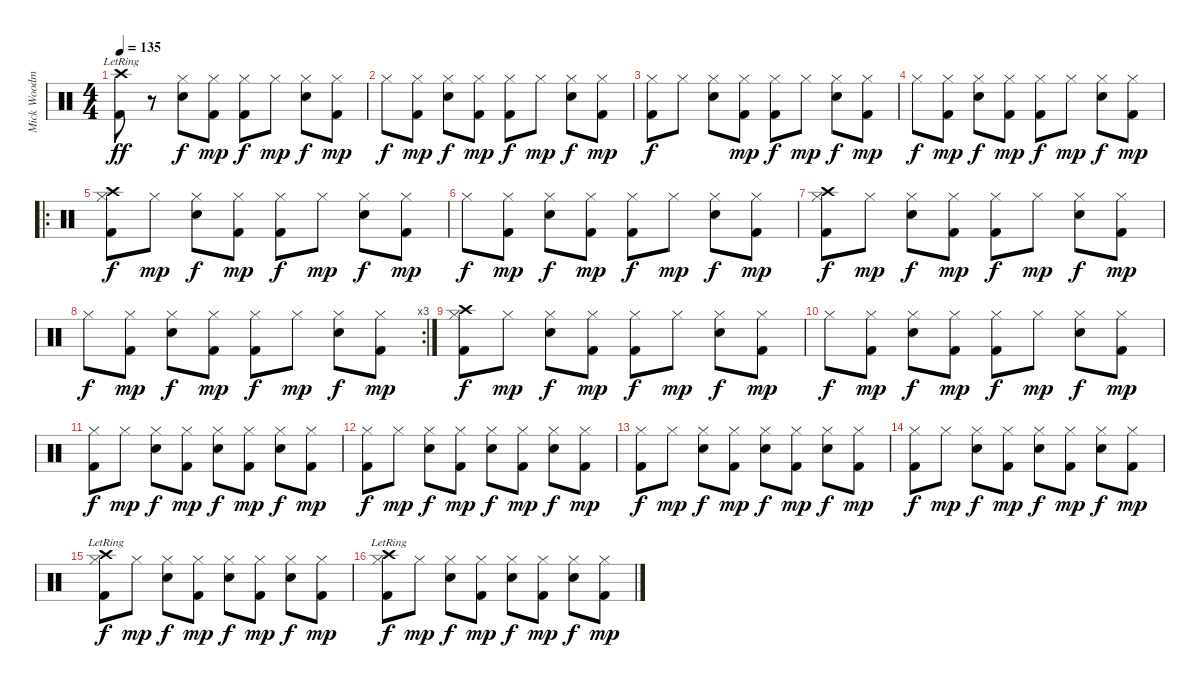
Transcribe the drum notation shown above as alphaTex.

\track ("Mick Woodmansey - Drums" "Mick Woodm") {instrument percussion}
\staff {score}
\articulation defaults
\ts (4 4)
\tempo 135
\clef neutral
\ks c
("Crash high (hit)"{lr} "Kick (hit) 2").8{dy ff} r.8 ("Hi-Hat (closed)" "Electric Snare (hit)").8{dy f} ("Hi-Hat (closed)" "Kick (hit) 2").8{dy mp} ("Hi-Hat (closed)" "Kick (hit) 2").8{dy f} "Hi-Hat (closed)".8{dy mp} ("Hi-Hat (closed)" "Electric Snare (hit)").8{dy f} ("Hi-Hat (closed)" "Kick (hit) 2").8{dy mp} |
"Hi-Hat (closed)".8{dy f} ("Hi-Hat (closed)" "Kick (hit) 2").8{dy mp} ("Hi-Hat (closed)" "Electric Snare (hit)").8{dy f} ("Hi-Hat (closed)" "Kick (hit) 2").8{dy mp} ("Hi-Hat (closed)" "Kick (hit) 2").8{dy f} "Hi-Hat (closed)".8{dy mp} ("Hi-Hat (closed)" "Electric Snare (hit)").8{dy f} ("Hi-Hat (closed)" "Kick (hit) 2").8{dy mp} |
("Hi-Hat (closed)" "Kick (hit) 2").8{dy f} "Hi-Hat (closed)".8 ("Hi-Hat (closed)" "Electric Snare (hit)").8 ("Hi-Hat (closed)" "Kick (hit) 2").8{dy mp} ("Hi-Hat (closed)" "Kick (hit) 2").8{dy f} "Hi-Hat (closed)".8{dy mp} ("Hi-Hat (closed)" "Electric Snare (hit)").8{dy f} ("Hi-Hat (closed)" "Kick (hit) 2").8{dy mp} |
"Hi-Hat (closed)".8{dy f} ("Hi-Hat (closed)" "Kick (hit) 2").8{dy mp} ("Hi-Hat (closed)" "Electric Snare (hit)").8{dy f} ("Hi-Hat (closed)" "Kick (hit) 2").8{dy mp} ("Hi-Hat (closed)" "Kick (hit) 2").8{dy f} "Hi-Hat (closed)".8{dy mp} ("Hi-Hat (closed)" "Electric Snare (hit)").8{dy f} ("Hi-Hat (closed)" "Kick (hit) 2").8{dy mp} |
\ro
("Crash high (hit)" "Hi-Hat (closed)" "Kick (hit) 2").8{dy f} "Hi-Hat (closed)".8{dy mp} ("Hi-Hat (closed)" "Electric Snare (hit)").8{dy f} ("Hi-Hat (closed)" "Kick (hit) 2").8{dy mp} ("Hi-Hat (closed)" "Kick (hit) 2").8{dy f} "Hi-Hat (closed)".8{dy mp} ("Hi-Hat (closed)" "Electric Snare (hit)").8{dy f} ("Hi-Hat (closed)" "Kick (hit) 2").8{dy mp} |
"Hi-Hat (closed)".8{dy f} ("Hi-Hat (closed)" "Kick (hit) 2").8{dy mp} ("Hi-Hat (closed)" "Electric Snare (hit)").8{dy f} ("Hi-Hat (closed)" "Kick (hit) 2").8{dy mp} ("Hi-Hat (closed)" "Kick (hit) 2").8{dy f} "Hi-Hat (closed)".8{dy mp} ("Hi-Hat (closed)" "Electric Snare (hit)").8{dy f} ("Hi-Hat (closed)" "Kick (hit) 2").8{dy mp} |
("Crash high (hit)" "Hi-Hat (closed)" "Kick (hit) 2").8{dy f} "Hi-Hat (closed)".8{dy mp} ("Hi-Hat (closed)" "Electric Snare (hit)").8{dy f} ("Hi-Hat (closed)" "Kick (hit) 2").8{dy mp} ("Hi-Hat (closed)" "Kick (hit) 2").8{dy f} "Hi-Hat (closed)".8{dy mp} ("Hi-Hat (closed)" "Electric Snare (hit)").8{dy f} ("Hi-Hat (closed)" "Kick (hit) 2").8{dy mp} |
\rc 3 "Hi-Hat (closed)".8{dy f}
("Hi-Hat (closed)" "Kick (hit) 2").8{dy mp} ("Hi-Hat (closed)" "Electric Snare (hit)").8{dy f} ("Hi-Hat (closed)" "Kick (hit) 2").8{dy mp} ("Hi-Hat (closed)" "Kick (hit) 2").8{dy f} "Hi-Hat (closed)".8{dy mp} ("Hi-Hat (closed)" "Electric Snare (hit)").8{dy f} ("Hi-Hat (closed)" "Kick (hit) 2").8{dy mp} |
("Crash high (hit)" "Hi-Hat (closed)" "Kick (hit) 2").8{dy f} "Hi-Hat (closed)".8{dy mp} ("Hi-Hat (closed)" "Electric Snare (hit)").8{dy f} ("Hi-Hat (closed)" "Kick (hit) 2").8{dy mp} ("Hi-Hat (closed)" "Kick (hit) 2").8{dy f} "Hi-Hat (closed)".8{dy mp} ("Hi-Hat (closed)" "Electric Snare (hit)").8{dy f} ("Hi-Hat (closed)" "Kick (hit) 2").8{dy mp} |
"Hi-Hat (closed)".8{dy f} ("Hi-Hat (closed)" "Kick (hit) 2").8{dy mp} ("Hi-Hat (closed)" "Electric Snare (hit)").8{dy f} ("Hi-Hat (closed)" "Kick (hit) 2").8{dy mp} ("Hi-Hat (closed)" "Kick (hit) 2").8{dy f} "Hi-Hat (closed)".8{dy mp} ("Hi-Hat (closed)" "Electric Snare (hit)").8{dy f} ("Hi-Hat (closed)" "Kick (hit) 2").8{dy mp} |
("Hi-Hat (closed)" "Kick (hit) 2").8{dy f} "Hi-Hat (closed)".8{dy mp} ("Hi-Hat (closed)" "Electric Snare (hit)").8{dy f} ("Hi-Hat (closed)" "Kick (hit) 2").8{dy mp} ("Hi-Hat (closed)" "Electric Snare (hit)").8{dy f} ("Hi-Hat (closed)" "Kick (hit) 2").8{dy mp} ("Hi-Hat (closed)" "Electric Snare (hit)").8{dy f} ("Hi-Hat (closed)" "Kick (hit) 2").8{dy mp} |
("Hi-Hat (closed)" "Kick (hit) 2").8{dy f} "Hi-Hat (closed)".8{dy mp} ("Hi-Hat (closed)" "Electric Snare (hit)").8{dy f} ("Hi-Hat (closed)" "Kick (hit) 2").8{dy mp} ("Hi-Hat (closed)" "Electric Snare (hit)").8{dy f} ("Hi-Hat (closed)" "Kick (hit) 2").8{dy mp} ("Hi-Hat (closed)" "Electric Snare (hit)").8{dy f} ("Hi-Hat (closed)" "Kick (hit) 2").8{dy mp} |
("Hi-Hat (closed)" "Kick (hit) 2").8{dy f} "Hi-Hat (closed)".8{dy mp} ("Hi-Hat (closed)" "Electric Snare (hit)").8{dy f} ("Hi-Hat (closed)" "Kick (hit) 2").8{dy mp} ("Hi-Hat (closed)" "Electric Snare (hit)").8{dy f} ("Hi-Hat (closed)" "Kick (hit) 2").8{dy mp} ("Hi-Hat (closed)" "Electric Snare (hit)").8{dy f} ("Hi-Hat (closed)" "Kick (hit) 2").8{dy mp} |
("Hi-Hat (closed)" "Kick (hit) 2").8{dy f} "Hi-Hat (closed)".8{dy mp} ("Hi-Hat (closed)" "Electric Snare (hit)").8{dy f} ("Hi-Hat (closed)" "Kick (hit) 2").8{dy mp} ("Hi-Hat (closed)" "Electric Snare (hit)").8{dy f} ("Hi-Hat (closed)" "Kick (hit) 2").8{dy mp} ("Hi-Hat (closed)" "Electric Snare (hit)").8{dy f} ("Hi-Hat (closed)" "Kick (hit) 2").8{dy mp} |
("Crash high (hit)"{lr} "Hi-Hat (closed)" "Kick (hit) 2").8{dy f} "Hi-Hat (closed)".8{dy mp} ("Hi-Hat (closed)" "Electric Snare (hit)").8{dy f} ("Hi-Hat (closed)" "Kick (hit) 2").8{dy mp} ("Hi-Hat (closed)" "Electric Snare (hit)").8{dy f} ("Hi-Hat (closed)" "Kick (hit) 2").8{dy mp} ("Hi-Hat (closed)" "Electric Snare (hit)").8{dy f} ("Hi-Hat (closed)" "Kick (hit) 2").8{dy mp} |
("Crash high (hit)"{lr} "Hi-Hat (closed)" "Kick (hit) 2").8{dy f} "Hi-Hat (closed)".8{dy mp} ("Hi-Hat (closed)" "Electric Snare (hit)").8{dy f} ("Hi-Hat (closed)" "Kick (hit) 2").8{dy mp} ("Hi-Hat (closed)" "Electric Snare (hit)").8{dy f} ("Hi-Hat (closed)" "Kick (hit) 2").8{dy mp} ("Hi-Hat (closed)" "Electric Snare (hit)").8{dy f} ("Hi-Hat (closed)" "Kick (hit) 2").8{dy mp}
